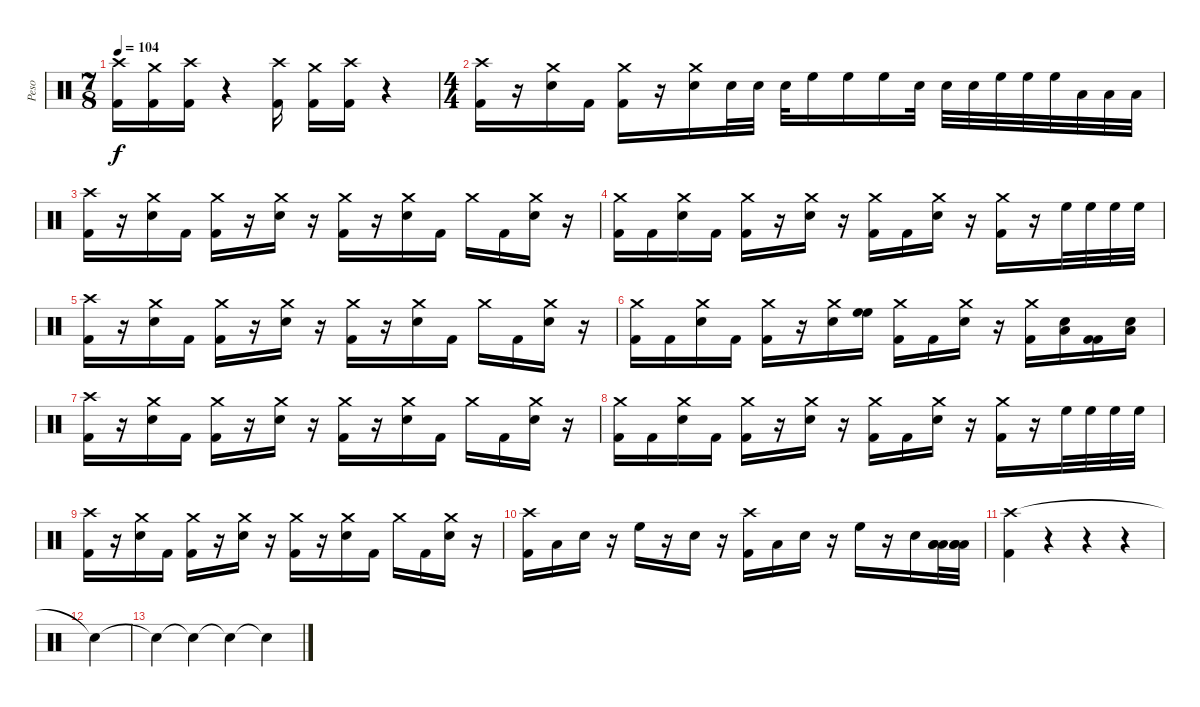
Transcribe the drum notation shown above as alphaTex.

\track ("Peso" "Peso") {instrument percussion}
\staff {score}
\articulation defaults
\ts (7 8)
\tempo 104
\clef neutral
\ks c
("Crash high (hit)" "Kick (hit) 2").16{dy f} ("Crash medium (hit)" "Kick (hit) 2").16 ("Crash high (hit)" "Kick (hit) 2").16 r.4 ("Crash high (hit)" "Kick (hit) 2").16 ("Crash medium (hit)" "Kick (hit) 2").16 ("Crash high (hit)" "Kick (hit) 2").16 r.4 |
\ts (4 4)
("Crash high (hit)" "Kick (hit) 2").16 r.16 ("Crash medium (hit)" "Snare (hit) 2").16 "Kick (hit) 2".16 ("Crash medium (hit)" "Kick (hit) 2").16 r.16 ("Crash medium (hit)" "Snare (hit) 2").16 "Snare (hit) 2".32 "Snare (hit) 2".32 "Snare (hit) 2".32 "High Floor Tom (hit)".16 "High Floor Tom (hit)".16 "High Floor Tom (hit)".16 "Snare (hit) 2".32 "Snare (hit) 2".32 "Snare (hit) 2".32 "High Floor Tom (hit)".32 "High Floor Tom (hit)".32 "High Floor Tom (hit)".32 "Low Floor Tom (hit)".32 "Low Floor Tom (hit)".32 "Low Floor Tom (hit)".32 |
("Crash high (hit)" "Kick (hit) 2").16 r.16 ("Crash medium (hit)" "Snare (hit) 2").16 "Kick (hit) 2".16 ("Crash medium (hit)" "Kick (hit) 2").16 r.16 ("Crash medium (hit)" "Snare (hit) 2").16 r.16 ("Crash medium (hit)" "Kick (hit) 2").16 r.16 ("Crash medium (hit)" "Snare (hit) 2").16 "Kick (hit) 2".16 "Crash medium (hit)".16 "Kick (hit) 2".16 ("Crash medium (hit)" "Snare (hit) 2").16 r.16 |
("Crash medium (hit)" "Kick (hit) 2").16 "Kick (hit) 2".16 ("Crash medium (hit)" "Snare (hit) 2").16 "Kick (hit) 2".16 ("Crash medium (hit)" "Kick (hit) 2").16 r.16 ("Crash medium (hit)" "Snare (hit) 2").16 r.16 ("Crash medium (hit)" "Kick (hit) 2").16 "Kick (hit) 2".16 ("Crash medium (hit)" "Snare (hit) 2").16 r.16 ("Crash medium (hit)" "Kick (hit) 2").16 r.16 "High Floor Tom (hit)".32 "High Floor Tom (hit)".32 "High Floor Tom (hit)".32 "High Floor Tom (hit)".32 |
("Crash high (hit)" "Kick (hit) 2").16 r.16 ("Crash medium (hit)" "Snare (hit) 2").16 "Kick (hit) 2".16 ("Crash medium (hit)" "Kick (hit) 2").16 r.16 ("Crash medium (hit)" "Snare (hit) 2").16 r.16 ("Crash medium (hit)" "Kick (hit) 2").16 r.16 ("Crash medium (hit)" "Snare (hit) 2").16 "Kick (hit) 2".16 "Crash medium (hit)".16 "Kick (hit) 2".16 ("Crash medium (hit)" "Snare (hit) 2").16 r.16 |
("Crash medium (hit)" "Kick (hit) 2").16 "Kick (hit) 2".16 ("Crash medium (hit)" "Snare (hit) 2").16 "Kick (hit) 2".16 ("Crash medium (hit)" "Kick (hit) 2").16 r.16 ("Crash medium (hit)" "Snare (hit) 2").16 ("High Floor Tom (hit)" "High Floor Tom (hit)").16 ("Crash medium (hit)" "Kick (hit) 2").16 "Kick (hit) 2".16 ("Crash medium (hit)" "Snare (hit) 2").16 r.16 ("Crash medium (hit)" "Kick (hit) 2").16 ("Low Floor Tom (hit)" "Snare (hit) 2").16 ("Kick (hit) 2" "Kick (hit) 2").16 ("Low Floor Tom (hit)" "Snare (hit) 2").16 |
("Crash high (hit)" "Kick (hit) 2").16 r.16 ("Crash medium (hit)" "Snare (hit) 2").16 "Kick (hit) 2".16 ("Crash medium (hit)" "Kick (hit) 2").16 r.16 ("Crash medium (hit)" "Snare (hit) 2").16 r.16 ("Crash medium (hit)" "Kick (hit) 2").16 r.16 ("Crash medium (hit)" "Snare (hit) 2").16 "Kick (hit) 2".16 "Crash medium (hit)".16 "Kick (hit) 2".16 ("Crash medium (hit)" "Snare (hit) 2").16 r.16 |
("Crash medium (hit)" "Kick (hit) 2").16 "Kick (hit) 2".16 ("Crash medium (hit)" "Snare (hit) 2").16 "Kick (hit) 2".16 ("Crash medium (hit)" "Kick (hit) 2").16 r.16 ("Crash medium (hit)" "Snare (hit) 2").16 r.16 ("Crash medium (hit)" "Kick (hit) 2").16 "Kick (hit) 2".16 ("Crash medium (hit)" "Snare (hit) 2").16 r.16 ("Crash medium (hit)" "Kick (hit) 2").16 r.16 "High Floor Tom (hit)".32 "High Floor Tom (hit)".32 "High Floor Tom (hit)".32 "High Floor Tom (hit)".32 |
("Crash high (hit)" "Kick (hit) 2").16 r.16 ("Crash medium (hit)" "Snare (hit) 2").16 "Kick (hit) 2".16 ("Crash medium (hit)" "Kick (hit) 2").16 r.16 ("Crash medium (hit)" "Snare (hit) 2").16 r.16 ("Crash medium (hit)" "Kick (hit) 2").16 r.16 ("Crash medium (hit)" "Snare (hit) 2").16 "Kick (hit) 2".16 "Crash medium (hit)".16 "Kick (hit) 2".16 ("Crash medium (hit)" "Snare (hit) 2").16 r.16 |
("Crash high (hit)" "Kick (hit) 2").16 "Low Floor Tom (hit)".16 "Snare (hit) 2".16 r.16 "High Floor Tom (hit)".16 r.16 "Snare (hit) 2".16 r.16 ("Crash high (hit)" "Kick (hit) 2").16 "Low Floor Tom (hit)".16 "Snare (hit) 2".16 r.16 "High Floor Tom (hit)".16 r.16 "Snare (hit) 2".16 ("Low Floor Tom (hit)" "Low Floor Tom (hit)" "Low Floor Tom (hit)").32{volume 16} ("Low Floor Tom (hit)" "Low Floor Tom (hit)" "Low Floor Tom (hit)").32 |
("Crash high (hit)" "Kick (hit) 2").4{volume 15} r.4 r.4 r.4 |
"Snare (hit)"{t}.4 |
"Snare (hit)"{t}.4 "Snare (hit)"{t}.4 "Snare (hit)"{t}.4 "Snare (hit)"{t}.4
